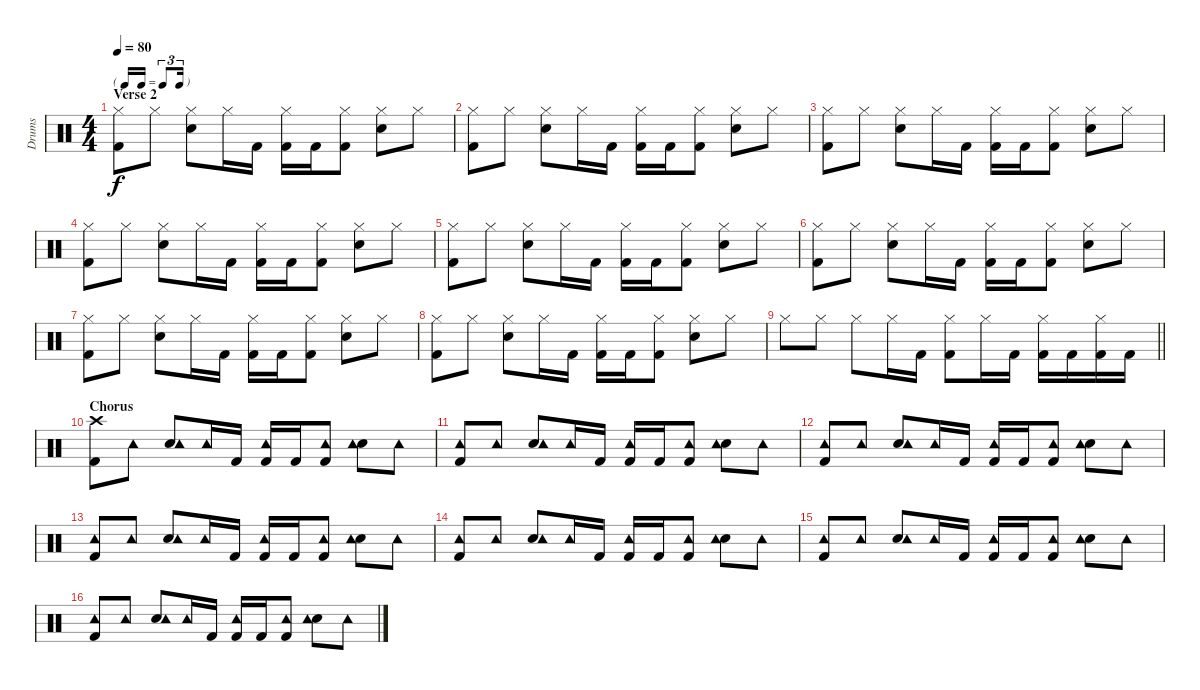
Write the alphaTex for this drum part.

\track ("Drums" "Drums") {instrument percussion}
\staff {score}
\articulation defaults
\ts (4 4)
\tf triplet16th
\section ("" "Verse 2")
\tempo 80
\clef neutral
\ks c
("Hi-Hat (closed)" "Kick (hit) 2").8{dy f} "Hi-Hat (closed)".8 ("Electric Snare (hit)" "Hi-Hat (closed)").8 "Hi-Hat (closed)".16 "Kick (hit) 2".16 ("Kick (hit) 2" "Hi-Hat (closed)").16 "Kick (hit) 2".16 ("Kick (hit) 2" "Hi-Hat (closed)").8 ("Electric Snare (hit)" "Hi-Hat (closed)").8 "Hi-Hat (closed)".8 |
("Hi-Hat (closed)" "Kick (hit) 2").8 "Hi-Hat (closed)".8 ("Electric Snare (hit)" "Hi-Hat (closed)").8 "Hi-Hat (closed)".16 "Kick (hit) 2".16 ("Kick (hit) 2" "Hi-Hat (closed)").16 "Kick (hit) 2".16 ("Kick (hit) 2" "Hi-Hat (closed)").8 ("Electric Snare (hit)" "Hi-Hat (closed)").8 "Hi-Hat (closed)".8 |
("Hi-Hat (closed)" "Kick (hit) 2").8 "Hi-Hat (closed)".8 ("Electric Snare (hit)" "Hi-Hat (closed)").8 "Hi-Hat (closed)".16 "Kick (hit) 2".16 ("Kick (hit) 2" "Hi-Hat (closed)").16 "Kick (hit) 2".16 ("Kick (hit) 2" "Hi-Hat (closed)").8 ("Electric Snare (hit)" "Hi-Hat (closed)").8 "Hi-Hat (closed)".8 |
("Hi-Hat (closed)" "Kick (hit) 2").8 "Hi-Hat (closed)".8 ("Electric Snare (hit)" "Hi-Hat (closed)").8 "Hi-Hat (closed)".16 "Kick (hit) 2".16 ("Kick (hit) 2" "Hi-Hat (closed)").16 "Kick (hit) 2".16 ("Kick (hit) 2" "Hi-Hat (closed)").8 ("Electric Snare (hit)" "Hi-Hat (closed)").8 "Hi-Hat (closed)".8 |
("Hi-Hat (closed)" "Kick (hit) 2").8 "Hi-Hat (closed)".8 ("Electric Snare (hit)" "Hi-Hat (closed)").8 "Hi-Hat (closed)".16 "Kick (hit) 2".16 ("Kick (hit) 2" "Hi-Hat (closed)").16 "Kick (hit) 2".16 ("Kick (hit) 2" "Hi-Hat (closed)").8 ("Electric Snare (hit)" "Hi-Hat (closed)").8 "Hi-Hat (closed)".8 |
("Hi-Hat (closed)" "Kick (hit) 2").8 "Hi-Hat (closed)".8 ("Electric Snare (hit)" "Hi-Hat (closed)").8 "Hi-Hat (closed)".16 "Kick (hit) 2".16 ("Kick (hit) 2" "Hi-Hat (closed)").16 "Kick (hit) 2".16 ("Kick (hit) 2" "Hi-Hat (closed)").8 ("Electric Snare (hit)" "Hi-Hat (closed)").8 "Hi-Hat (closed)".8 |
("Hi-Hat (closed)" "Kick (hit) 2").8 "Hi-Hat (closed)".8 ("Electric Snare (hit)" "Hi-Hat (closed)").8 "Hi-Hat (closed)".16 "Kick (hit) 2".16 ("Kick (hit) 2" "Hi-Hat (closed)").16 "Kick (hit) 2".16 ("Kick (hit) 2" "Hi-Hat (closed)").8 ("Electric Snare (hit)" "Hi-Hat (closed)").8 "Hi-Hat (closed)".8 |
("Hi-Hat (closed)" "Kick (hit) 2").8 "Hi-Hat (closed)".8 ("Electric Snare (hit)" "Hi-Hat (closed)").8 "Hi-Hat (closed)".16 "Kick (hit) 2".16 ("Kick (hit) 2" "Hi-Hat (closed)").16 "Kick (hit) 2".16 ("Kick (hit) 2" "Hi-Hat (closed)").8 ("Electric Snare (hit)" "Hi-Hat (closed)").8 "Hi-Hat (closed)".8 |
\barLineRight lightlight "Hi-Hat (closed)".8 "Hi-Hat (closed)".8 "Hi-Hat (closed)".8 "Hi-Hat (closed)".16 "Kick (hit) 2".16
("Kick (hit) 2" "Hi-Hat (closed)").8 "Hi-Hat (closed)".16 "Kick (hit) 2".16 ("Kick (hit) 2" "Hi-Hat (closed)").16 "Kick (hit) 2".16 ("Kick (hit) 2" "Hi-Hat (closed)").16 "Kick (hit) 2".16 |
\section ("" "Chorus")
("Crash high (hit)" "Kick (hit) 2").8 "Tambourine (hit)".8 ("Electric Snare (hit)" "Tambourine (hit)").8 "Tambourine (hit)".16 "Kick (hit) 2".16 ("Kick (hit) 2" "Tambourine (hit)").16 "Kick (hit) 2".16 ("Kick (hit) 2" "Tambourine (hit)").8 ("Electric Snare (hit)" "Tambourine (hit)").8 "Tambourine (hit)".8 |
("Tambourine (hit)" "Kick (hit) 2").8 "Tambourine (hit)".8 ("Electric Snare (hit)" "Tambourine (hit)").8 "Tambourine (hit)".16 "Kick (hit) 2".16 ("Kick (hit) 2" "Tambourine (hit)").16 "Kick (hit) 2".16 ("Kick (hit) 2" "Tambourine (hit)").8 ("Electric Snare (hit)" "Tambourine (hit)").8 "Tambourine (hit)".8 |
("Tambourine (hit)" "Kick (hit) 2").8 "Tambourine (hit)".8 ("Electric Snare (hit)" "Tambourine (hit)").8 "Tambourine (hit)".16 "Kick (hit) 2".16 ("Kick (hit) 2" "Tambourine (hit)").16 "Kick (hit) 2".16 ("Kick (hit) 2" "Tambourine (hit)").8 ("Electric Snare (hit)" "Tambourine (hit)").8 "Tambourine (hit)".8 |
("Tambourine (hit)" "Kick (hit) 2").8 "Tambourine (hit)".8 ("Electric Snare (hit)" "Tambourine (hit)").8 "Tambourine (hit)".16 "Kick (hit) 2".16 ("Kick (hit) 2" "Tambourine (hit)").16 "Kick (hit) 2".16 ("Kick (hit) 2" "Tambourine (hit)").8 ("Electric Snare (hit)" "Tambourine (hit)").8 "Tambourine (hit)".8 |
("Tambourine (hit)" "Kick (hit) 2").8 "Tambourine (hit)".8 ("Electric Snare (hit)" "Tambourine (hit)").8 "Tambourine (hit)".16 "Kick (hit) 2".16 ("Kick (hit) 2" "Tambourine (hit)").16 "Kick (hit) 2".16 ("Kick (hit) 2" "Tambourine (hit)").8 ("Electric Snare (hit)" "Tambourine (hit)").8 "Tambourine (hit)".8 |
("Tambourine (hit)" "Kick (hit) 2").8 "Tambourine (hit)".8 ("Electric Snare (hit)" "Tambourine (hit)").8 "Tambourine (hit)".16 "Kick (hit) 2".16 ("Kick (hit) 2" "Tambourine (hit)").16 "Kick (hit) 2".16 ("Kick (hit) 2" "Tambourine (hit)").8 ("Electric Snare (hit)" "Tambourine (hit)").8 "Tambourine (hit)".8 |
("Tambourine (hit)" "Kick (hit) 2").8 "Tambourine (hit)".8 ("Electric Snare (hit)" "Tambourine (hit)").8 "Tambourine (hit)".16 "Kick (hit) 2".16 ("Kick (hit) 2" "Tambourine (hit)").16 "Kick (hit) 2".16 ("Kick (hit) 2" "Tambourine (hit)").8 ("Electric Snare (hit)" "Tambourine (hit)").8 "Tambourine (hit)".8
